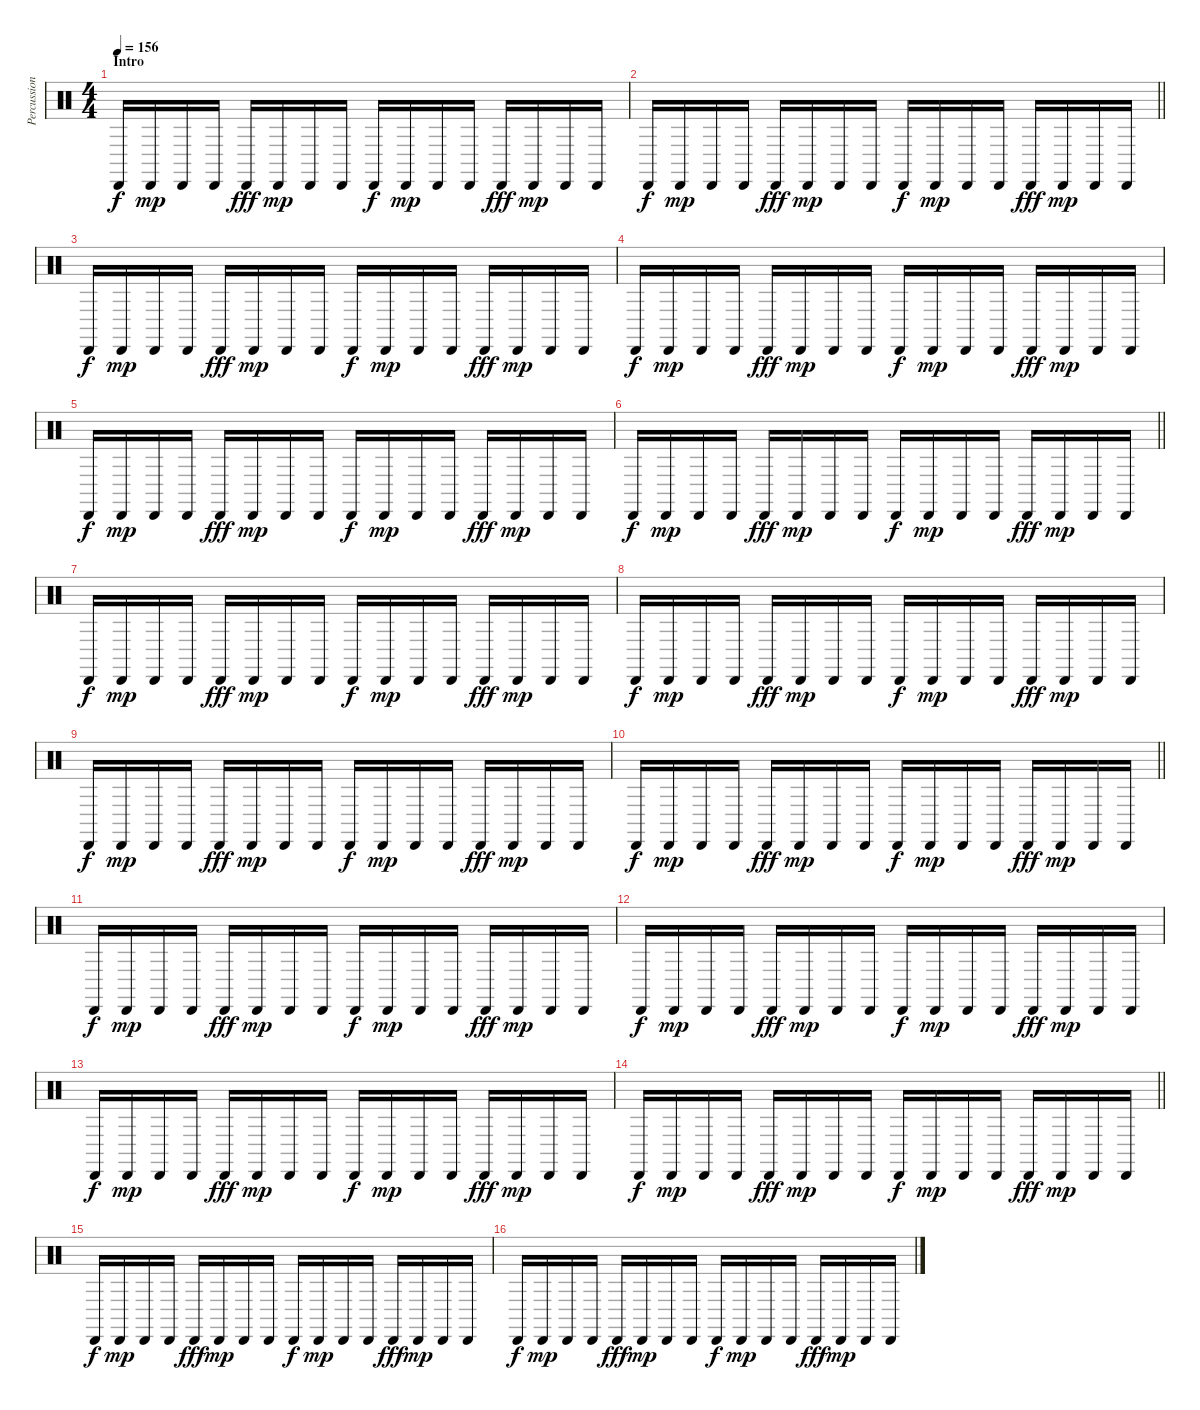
\track ("Percussion" "Percussion") {instrument percussion}
\staff {score}
\articulation defaults
\ts (4 4)
\section ("" "Intro")
\tempo 156
\clef neutral
\ks c "Cabasa (hit)".16{dy f} "Cabasa (hit)".16{dy mp} "Cabasa (hit)".16 "Cabasa (hit)".16 "Cabasa (hit)".16{dy fff} "Cabasa (hit)".16{dy mp} "Cabasa (hit)".16 "Cabasa (hit)".16 "Cabasa (hit)".16{dy f} "Cabasa (hit)".16{dy mp} "Cabasa (hit)".16 "Cabasa (hit)".16 "Cabasa (hit)".16{dy fff} "Cabasa (hit)".16{dy mp} "Cabasa (hit)".16 "Cabasa (hit)".16
|
\barLineRight lightlight "Cabasa (hit)".16{dy f} "Cabasa (hit)".16{dy mp} "Cabasa (hit)".16 "Cabasa (hit)".16 "Cabasa (hit)".16{dy fff} "Cabasa (hit)".16{dy mp} "Cabasa (hit)".16 "Cabasa (hit)".16 "Cabasa (hit)".16{dy f} "Cabasa (hit)".16{dy mp} "Cabasa (hit)".16 "Cabasa (hit)".16 "Cabasa (hit)".16{dy fff} "Cabasa (hit)".16{dy mp} "Cabasa (hit)".16 "Cabasa (hit)".16
|
"Cabasa (hit)".16{dy f} "Cabasa (hit)".16{dy mp} "Cabasa (hit)".16 "Cabasa (hit)".16 "Cabasa (hit)".16{dy fff} "Cabasa (hit)".16{dy mp} "Cabasa (hit)".16 "Cabasa (hit)".16 "Cabasa (hit)".16{dy f} "Cabasa (hit)".16{dy mp} "Cabasa (hit)".16 "Cabasa (hit)".16 "Cabasa (hit)".16{dy fff} "Cabasa (hit)".16{dy mp} "Cabasa (hit)".16 "Cabasa (hit)".16 |
"Cabasa (hit)".16{dy f} "Cabasa (hit)".16{dy mp} "Cabasa (hit)".16 "Cabasa (hit)".16 "Cabasa (hit)".16{dy fff} "Cabasa (hit)".16{dy mp} "Cabasa (hit)".16 "Cabasa (hit)".16 "Cabasa (hit)".16{dy f} "Cabasa (hit)".16{dy mp} "Cabasa (hit)".16 "Cabasa (hit)".16 "Cabasa (hit)".16{dy fff} "Cabasa (hit)".16{dy mp} "Cabasa (hit)".16 "Cabasa (hit)".16 |
"Cabasa (hit)".16{dy f} "Cabasa (hit)".16{dy mp} "Cabasa (hit)".16 "Cabasa (hit)".16 "Cabasa (hit)".16{dy fff} "Cabasa (hit)".16{dy mp} "Cabasa (hit)".16 "Cabasa (hit)".16 "Cabasa (hit)".16{dy f} "Cabasa (hit)".16{dy mp} "Cabasa (hit)".16 "Cabasa (hit)".16 "Cabasa (hit)".16{dy fff} "Cabasa (hit)".16{dy mp} "Cabasa (hit)".16 "Cabasa (hit)".16 |
\barLineRight lightlight "Cabasa (hit)".16{dy f} "Cabasa (hit)".16{dy mp} "Cabasa (hit)".16 "Cabasa (hit)".16 "Cabasa (hit)".16{dy fff} "Cabasa (hit)".16{dy mp} "Cabasa (hit)".16 "Cabasa (hit)".16 "Cabasa (hit)".16{dy f} "Cabasa (hit)".16{dy mp} "Cabasa (hit)".16 "Cabasa (hit)".16 "Cabasa (hit)".16{dy fff} "Cabasa (hit)".16{dy mp} "Cabasa (hit)".16 "Cabasa (hit)".16
|
"Cabasa (hit)".16{dy f} "Cabasa (hit)".16{dy mp} "Cabasa (hit)".16 "Cabasa (hit)".16 "Cabasa (hit)".16{dy fff} "Cabasa (hit)".16{dy mp} "Cabasa (hit)".16 "Cabasa (hit)".16 "Cabasa (hit)".16{dy f} "Cabasa (hit)".16{dy mp} "Cabasa (hit)".16 "Cabasa (hit)".16 "Cabasa (hit)".16{dy fff} "Cabasa (hit)".16{dy mp} "Cabasa (hit)".16 "Cabasa (hit)".16 |
"Cabasa (hit)".16{dy f} "Cabasa (hit)".16{dy mp} "Cabasa (hit)".16 "Cabasa (hit)".16 "Cabasa (hit)".16{dy fff} "Cabasa (hit)".16{dy mp} "Cabasa (hit)".16 "Cabasa (hit)".16 "Cabasa (hit)".16{dy f} "Cabasa (hit)".16{dy mp} "Cabasa (hit)".16 "Cabasa (hit)".16 "Cabasa (hit)".16{dy fff} "Cabasa (hit)".16{dy mp} "Cabasa (hit)".16 "Cabasa (hit)".16 |
"Cabasa (hit)".16{dy f} "Cabasa (hit)".16{dy mp} "Cabasa (hit)".16 "Cabasa (hit)".16 "Cabasa (hit)".16{dy fff} "Cabasa (hit)".16{dy mp} "Cabasa (hit)".16 "Cabasa (hit)".16 "Cabasa (hit)".16{dy f} "Cabasa (hit)".16{dy mp} "Cabasa (hit)".16 "Cabasa (hit)".16 "Cabasa (hit)".16{dy fff} "Cabasa (hit)".16{dy mp} "Cabasa (hit)".16 "Cabasa (hit)".16 |
\barLineRight lightlight "Cabasa (hit)".16{dy f} "Cabasa (hit)".16{dy mp} "Cabasa (hit)".16 "Cabasa (hit)".16 "Cabasa (hit)".16{dy fff} "Cabasa (hit)".16{dy mp} "Cabasa (hit)".16 "Cabasa (hit)".16 "Cabasa (hit)".16{dy f} "Cabasa (hit)".16{dy mp} "Cabasa (hit)".16 "Cabasa (hit)".16 "Cabasa (hit)".16{dy fff} "Cabasa (hit)".16{dy mp} "Cabasa (hit)".16 "Cabasa (hit)".16
|
"Cabasa (hit)".16{dy f} "Cabasa (hit)".16{dy mp} "Cabasa (hit)".16 "Cabasa (hit)".16 "Cabasa (hit)".16{dy fff} "Cabasa (hit)".16{dy mp} "Cabasa (hit)".16 "Cabasa (hit)".16 "Cabasa (hit)".16{dy f} "Cabasa (hit)".16{dy mp} "Cabasa (hit)".16 "Cabasa (hit)".16 "Cabasa (hit)".16{dy fff} "Cabasa (hit)".16{dy mp} "Cabasa (hit)".16 "Cabasa (hit)".16 |
"Cabasa (hit)".16{dy f} "Cabasa (hit)".16{dy mp} "Cabasa (hit)".16 "Cabasa (hit)".16 "Cabasa (hit)".16{dy fff} "Cabasa (hit)".16{dy mp} "Cabasa (hit)".16 "Cabasa (hit)".16 "Cabasa (hit)".16{dy f} "Cabasa (hit)".16{dy mp} "Cabasa (hit)".16 "Cabasa (hit)".16 "Cabasa (hit)".16{dy fff} "Cabasa (hit)".16{dy mp} "Cabasa (hit)".16 "Cabasa (hit)".16 |
"Cabasa (hit)".16{dy f} "Cabasa (hit)".16{dy mp} "Cabasa (hit)".16 "Cabasa (hit)".16 "Cabasa (hit)".16{dy fff} "Cabasa (hit)".16{dy mp} "Cabasa (hit)".16 "Cabasa (hit)".16 "Cabasa (hit)".16{dy f} "Cabasa (hit)".16{dy mp} "Cabasa (hit)".16 "Cabasa (hit)".16 "Cabasa (hit)".16{dy fff} "Cabasa (hit)".16{dy mp} "Cabasa (hit)".16 "Cabasa (hit)".16 |
\barLineRight lightlight "Cabasa (hit)".16{dy f} "Cabasa (hit)".16{dy mp} "Cabasa (hit)".16 "Cabasa (hit)".16 "Cabasa (hit)".16{dy fff} "Cabasa (hit)".16{dy mp} "Cabasa (hit)".16 "Cabasa (hit)".16 "Cabasa (hit)".16{dy f} "Cabasa (hit)".16{dy mp} "Cabasa (hit)".16 "Cabasa (hit)".16 "Cabasa (hit)".16{dy fff} "Cabasa (hit)".16{dy mp} "Cabasa (hit)".16 "Cabasa (hit)".16
|
"Cabasa (hit)".16{dy f} "Cabasa (hit)".16{dy mp} "Cabasa (hit)".16 "Cabasa (hit)".16 "Cabasa (hit)".16{dy fff} "Cabasa (hit)".16{dy mp} "Cabasa (hit)".16 "Cabasa (hit)".16 "Cabasa (hit)".16{dy f} "Cabasa (hit)".16{dy mp} "Cabasa (hit)".16 "Cabasa (hit)".16 "Cabasa (hit)".16{dy fff} "Cabasa (hit)".16{dy mp} "Cabasa (hit)".16 "Cabasa (hit)".16 |
"Cabasa (hit)".16{dy f} "Cabasa (hit)".16{dy mp} "Cabasa (hit)".16 "Cabasa (hit)".16 "Cabasa (hit)".16{dy fff} "Cabasa (hit)".16{dy mp} "Cabasa (hit)".16 "Cabasa (hit)".16 "Cabasa (hit)".16{dy f} "Cabasa (hit)".16{dy mp} "Cabasa (hit)".16 "Cabasa (hit)".16 "Cabasa (hit)".16{dy fff} "Cabasa (hit)".16{dy mp} "Cabasa (hit)".16 "Cabasa (hit)".16
